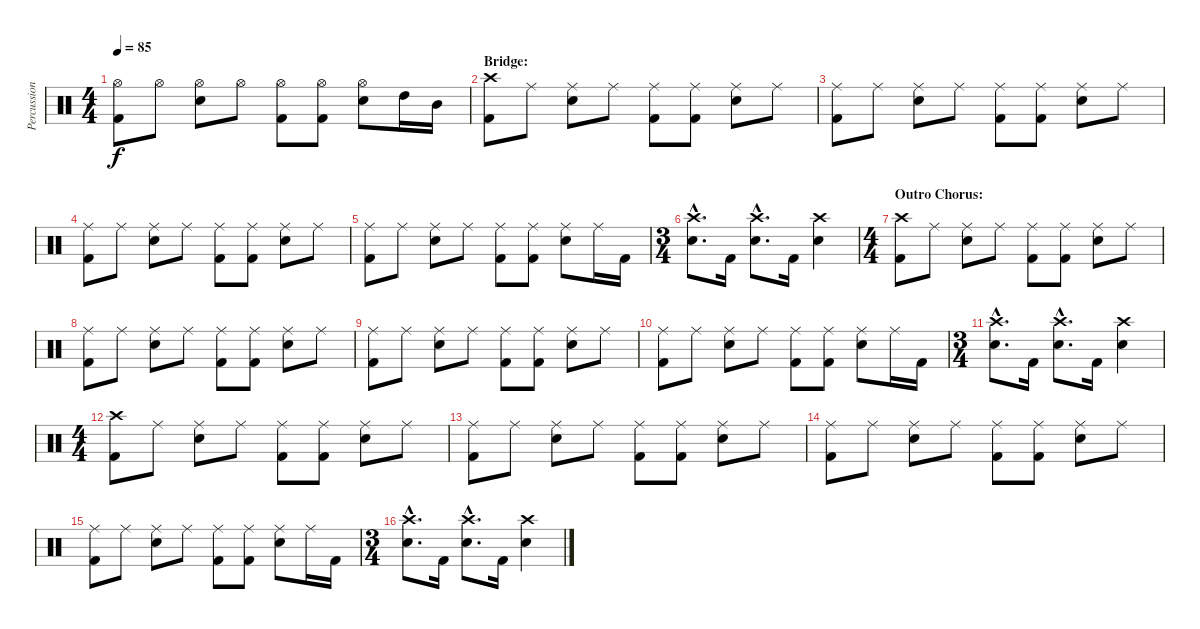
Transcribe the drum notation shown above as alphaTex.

\track ("Percussion" "Percussion") {instrument percussion}
\staff {score}
\articulation defaults
\ts (4 4)
\tempo 85
\clef neutral
\ks c
("Hi-Hat (open)" "Kick (hit) 2").8{dy f} "Hi-Hat (open)".8 ("Hi-Hat (open)" "Electric Snare (hit)").8 "Hi-Hat (open)".8 ("Hi-Hat (open)" "Kick (hit) 2").8 ("Hi-Hat (open)" "Kick (hit) 2").8 ("Hi-Hat (open)" "Electric Snare (hit)").8 "High Tom (hit)".16 "Mid Tom (hit)".16 |
\section ("" "Bridge:")
("Crash high (hit)" "Kick (hit) 2").8 "Ride (middle)".8 ("Ride (middle)" "Electric Snare (hit)").8 "Ride (middle)".8 ("Ride (middle)" "Kick (hit) 2").8 ("Ride (middle)" "Kick (hit) 2").8 ("Ride (middle)" "Electric Snare (hit)").8 "Ride (middle)".8 |
("Ride (middle)" "Kick (hit) 2").8 "Ride (middle)".8 ("Ride (middle)" "Electric Snare (hit)").8 "Ride (middle)".8 ("Ride (middle)" "Kick (hit) 2").8 ("Ride (middle)" "Kick (hit) 2").8 ("Ride (middle)" "Electric Snare (hit)").8 "Ride (middle)".8 |
("Ride (middle)" "Kick (hit) 2").8 "Ride (middle)".8 ("Ride (middle)" "Electric Snare (hit)").8 "Ride (middle)".8 ("Ride (middle)" "Kick (hit) 2").8 ("Ride (middle)" "Kick (hit) 2").8 ("Ride (middle)" "Electric Snare (hit)").8 "Ride (middle)".8 |
("Ride (middle)" "Kick (hit) 2").8 "Ride (middle)".8 ("Ride (middle)" "Electric Snare (hit)").8 "Ride (middle)".8 ("Ride (middle)" "Kick (hit) 2").8 ("Ride (middle)" "Kick (hit) 2").8 ("Ride (middle)" "Electric Snare (hit)").8 "Ride (middle)".16 "Kick (hit) 2".16 |
\ts (3 4)
("Crash high (hit)"{hac} "Electric Snare (hit)"{hac}).8{d} "Kick (hit) 2".16 ("Crash high (hit)"{hac} "Electric Snare (hit)"{hac}).8{d} "Kick (hit) 2".16 ("Crash high (hit)" "Electric Snare (hit)").4 |
\ts (4 4)
\section ("" "Outro Chorus:")
("Crash high (hit)" "Kick (hit) 2").8 "Ride (middle)".8 ("Ride (middle)" "Electric Snare (hit)").8 "Ride (middle)".8 ("Ride (middle)" "Kick (hit) 2").8 ("Ride (middle)" "Kick (hit) 2").8 ("Ride (middle)" "Electric Snare (hit)").8 "Ride (middle)".8 |
("Ride (middle)" "Kick (hit) 2").8 "Ride (middle)".8 ("Ride (middle)" "Electric Snare (hit)").8 "Ride (middle)".8 ("Ride (middle)" "Kick (hit) 2").8 ("Ride (middle)" "Kick (hit) 2").8 ("Ride (middle)" "Electric Snare (hit)").8 "Ride (middle)".8 |
("Ride (middle)" "Kick (hit) 2").8 "Ride (middle)".8 ("Ride (middle)" "Electric Snare (hit)").8 "Ride (middle)".8 ("Ride (middle)" "Kick (hit) 2").8 ("Ride (middle)" "Kick (hit) 2").8 ("Ride (middle)" "Electric Snare (hit)").8 "Ride (middle)".8 |
("Ride (middle)" "Kick (hit) 2").8 "Ride (middle)".8 ("Ride (middle)" "Electric Snare (hit)").8 "Ride (middle)".8 ("Ride (middle)" "Kick (hit) 2").8 ("Ride (middle)" "Kick (hit) 2").8 ("Ride (middle)" "Electric Snare (hit)").8 "Ride (middle)".16 "Kick (hit) 2".16 |
\ts (3 4)
("Crash high (hit)"{hac} "Electric Snare (hit)"{hac}).8{d} "Kick (hit) 2".16 ("Crash high (hit)"{hac} "Electric Snare (hit)"{hac}).8{d} "Kick (hit) 2".16 ("Crash high (hit)" "Electric Snare (hit)").4 |
\ts (4 4)
("Crash high (hit)" "Kick (hit) 2").8 "Ride (middle)".8 ("Ride (middle)" "Electric Snare (hit)").8 "Ride (middle)".8 ("Ride (middle)" "Kick (hit) 2").8 ("Ride (middle)" "Kick (hit) 2").8 ("Ride (middle)" "Electric Snare (hit)").8 "Ride (middle)".8 |
("Ride (middle)" "Kick (hit) 2").8 "Ride (middle)".8 ("Ride (middle)" "Electric Snare (hit)").8 "Ride (middle)".8 ("Ride (middle)" "Kick (hit) 2").8 ("Ride (middle)" "Kick (hit) 2").8 ("Ride (middle)" "Electric Snare (hit)").8 "Ride (middle)".8 |
("Ride (middle)" "Kick (hit) 2").8 "Ride (middle)".8 ("Ride (middle)" "Electric Snare (hit)").8 "Ride (middle)".8 ("Ride (middle)" "Kick (hit) 2").8 ("Ride (middle)" "Kick (hit) 2").8 ("Ride (middle)" "Electric Snare (hit)").8 "Ride (middle)".8 |
("Ride (middle)" "Kick (hit) 2").8 "Ride (middle)".8 ("Ride (middle)" "Electric Snare (hit)").8 "Ride (middle)".8 ("Ride (middle)" "Kick (hit) 2").8 ("Ride (middle)" "Kick (hit) 2").8 ("Ride (middle)" "Electric Snare (hit)").8 "Ride (middle)".16 "Kick (hit) 2".16 |
\ts (3 4)
("Crash high (hit)"{hac} "Electric Snare (hit)"{hac}).8{d} "Kick (hit) 2".16 ("Crash high (hit)"{hac} "Electric Snare (hit)"{hac}).8{d} "Kick (hit) 2".16 ("Crash high (hit)" "Electric Snare (hit)").4
